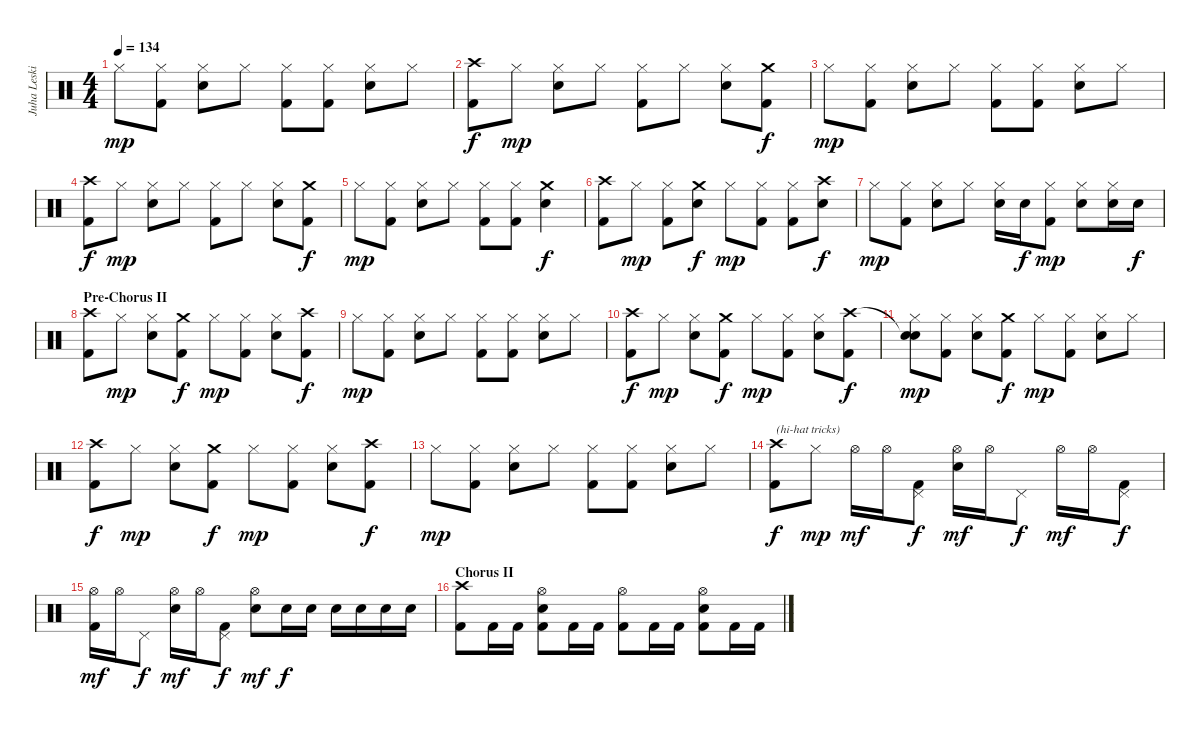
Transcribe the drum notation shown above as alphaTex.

\track ("Juha Leskinen - Drums" "Juha Leski") {instrument percussion}
\staff {score}
\articulation defaults
\ts (4 4)
\tempo 134
\clef neutral
\ks c "Hi-Hat (closed)".8{dy mp}
("Hi-Hat (closed)" "Kick (hit) 2").8 ("Hi-Hat (closed)" "Electric Snare (hit)").8 "Hi-Hat (closed)".8 ("Hi-Hat (closed)" "Kick (hit) 2").8 ("Hi-Hat (closed)" "Kick (hit) 2").8 ("Hi-Hat (closed)" "Electric Snare (hit)").8 "Hi-Hat (closed)".8 |
("Crash high (hit)" "Kick (hit) 2").8{dy f} "Hi-Hat (closed)".8{dy mp} ("Hi-Hat (closed)" "Electric Snare (hit)").8 "Hi-Hat (closed)".8 ("Hi-Hat (closed)" "Kick (hit) 2").8 "Hi-Hat (closed)".8 ("Hi-Hat (closed)" "Electric Snare (hit)").8 ("Crash medium (hit)" "Kick (hit) 2").8{dy f} |
"Hi-Hat (closed)".8{dy mp} ("Hi-Hat (closed)" "Kick (hit) 2").8 ("Hi-Hat (closed)" "Electric Snare (hit)").8 "Hi-Hat (closed)".8 ("Hi-Hat (closed)" "Kick (hit) 2").8 ("Hi-Hat (closed)" "Kick (hit) 2").8 ("Hi-Hat (closed)" "Electric Snare (hit)").8 "Hi-Hat (closed)".8 |
("Crash high (hit)" "Kick (hit) 2").8{dy f} "Hi-Hat (closed)".8{dy mp} ("Hi-Hat (closed)" "Electric Snare (hit)").8 "Hi-Hat (closed)".8 ("Hi-Hat (closed)" "Kick (hit) 2").8 "Hi-Hat (closed)".8 ("Hi-Hat (closed)" "Electric Snare (hit)").8 ("Crash medium (hit)" "Kick (hit) 2").8{dy f} |
"Hi-Hat (closed)".8{dy mp} ("Hi-Hat (closed)" "Kick (hit) 2").8 ("Hi-Hat (closed)" "Electric Snare (hit)").8 "Hi-Hat (closed)".8 ("Hi-Hat (closed)" "Kick (hit) 2").8 ("Hi-Hat (closed)" "Kick (hit) 2").8 ("Crash medium (hit)" "Electric Snare (hit)").4{dy f} |
("Crash high (hit)" "Kick (hit) 2").8 "Hi-Hat (closed)".8{dy mp} ("Hi-Hat (closed)" "Kick (hit) 2").8 ("Crash medium (hit)" "Electric Snare (hit)").8{dy f} "Hi-Hat (closed)".8{dy mp} ("Hi-Hat (closed)" "Kick (hit) 2").8 ("Hi-Hat (closed)" "Kick (hit) 2").8 ("Crash high (hit)" "Electric Snare (hit)").8{dy f} |
"Hi-Hat (closed)".8{dy mp} ("Hi-Hat (closed)" "Kick (hit) 2").8 ("Hi-Hat (closed)" "Electric Snare (hit)").8 "Hi-Hat (closed)".8 ("Hi-Hat (closed)" "Electric Snare (hit)").16 "Electric Snare (hit)".16{dy f} ("Hi-Hat (closed)" "Kick (hit) 2").8{dy mp} ("Hi-Hat (closed)" "Electric Snare (hit)").8 ("Hi-Hat (closed)" "Electric Snare (hit)").16 "Electric Snare (hit)".16{dy f} |
\section ("" "Pre-Chorus II")
("Crash high (hit)" "Kick (hit) 2").8 "Hi-Hat (closed)".8{dy mp} ("Hi-Hat (closed)" "Electric Snare (hit)").8 ("Crash medium (hit)" "Kick (hit) 2").8{dy f} "Hi-Hat (closed)".8{dy mp} ("Hi-Hat (closed)" "Kick (hit) 2").8 ("Hi-Hat (closed)" "Electric Snare (hit)").8 ("Crash high (hit)" "Kick (hit) 2").8{dy f} |
"Hi-Hat (closed)".8{dy mp} ("Hi-Hat (closed)" "Kick (hit) 2").8 ("Hi-Hat (closed)" "Electric Snare (hit)").8 "Hi-Hat (closed)".8 ("Hi-Hat (closed)" "Kick (hit) 2").8 ("Hi-Hat (closed)" "Kick (hit) 2").8 ("Hi-Hat (closed)" "Electric Snare (hit)").8 "Hi-Hat (closed)".8 |
("Crash high (hit)" "Kick (hit) 2").8{dy f} "Hi-Hat (closed)".8{dy mp} ("Hi-Hat (closed)" "Electric Snare (hit)").8 ("Crash medium (hit)" "Kick (hit) 2").8{dy f} "Hi-Hat (closed)".8{dy mp} ("Hi-Hat (closed)" "Kick (hit) 2").8 ("Hi-Hat (closed)" "Electric Snare (hit)").8 ("Crash high (hit)" "Kick (hit) 2").8{dy f} |
("Snare (hit)"{t} "Hi-Hat (closed)" "Snare (hit)").8{dy mp} ("Hi-Hat (closed)" "Kick (hit) 2").8 ("Hi-Hat (closed)" "Electric Snare (hit)").8 ("Crash medium (hit)" "Kick (hit) 2").8{dy f} "Hi-Hat (closed)".8{dy mp} ("Hi-Hat (closed)" "Kick (hit) 2").8 ("Hi-Hat (closed)" "Electric Snare (hit)").8 "Hi-Hat (closed)".8 |
("Crash high (hit)" "Kick (hit) 2").8{dy f} "Hi-Hat (closed)".8{dy mp} ("Hi-Hat (closed)" "Electric Snare (hit)").8 ("Crash medium (hit)" "Kick (hit) 2").8{dy f} "Hi-Hat (closed)".8{dy mp} ("Hi-Hat (closed)" "Kick (hit) 2").8 ("Hi-Hat (closed)" "Electric Snare (hit)").8 ("Crash high (hit)" "Kick (hit) 2").8{dy f} |
"Hi-Hat (closed)".8{dy mp} ("Hi-Hat (closed)" "Kick (hit) 2").8 ("Hi-Hat (closed)" "Electric Snare (hit)").8 "Hi-Hat (closed)".8 ("Hi-Hat (closed)" "Kick (hit) 2").8 ("Hi-Hat (closed)" "Kick (hit) 2").8 ("Hi-Hat (closed)" "Electric Snare (hit)").8 "Hi-Hat (closed)".8 |
("Crash high (hit)" "Kick (hit) 2").8{txt "(hi-hat tricks)" dy f} "Hi-Hat (closed)".8{dy mp} "Hi-Hat (open)".16{dy mf} "Hi-Hat (open)".16 ("Pedal Hi-Hat (hit)" "Kick (hit) 2").8{dy f} ("Hi-Hat (open)" "Electric Snare (hit)").16{dy mf} "Hi-Hat (open)".16 "Pedal Hi-Hat (hit)".8{dy f} "Hi-Hat (open)".16{dy mf} "Hi-Hat (open)".16 ("Pedal Hi-Hat (hit)" "Kick (hit) 2").8{dy f} |
("Hi-Hat (open)" "Kick (hit) 2").16{dy mf} "Hi-Hat (open)".16 "Pedal Hi-Hat (hit)".8{dy f} ("Hi-Hat (open)" "Electric Snare (hit)").16{dy mf} "Hi-Hat (open)".16 ("Pedal Hi-Hat (hit)" "Kick (hit) 2").8{dy f} ("Hi-Hat (open)" "Electric Snare (hit)").8{dy mf} "Electric Snare (hit)".16{dy f} "Electric Snare (hit)".16 "Electric Snare (hit)".16 "Electric Snare (hit)".16 "Electric Snare (hit)".16 "Electric Snare (hit)".16 |
\section ("" "Chorus II")
("Crash high (hit)" "Kick (hit) 2").8 "Kick (hit) 2".16 "Kick (hit) 2".16 ("Hi-Hat (open)" "Electric Snare (hit)" "Kick (hit) 2").8 "Kick (hit) 2".16 "Kick (hit) 2".16 ("Hi-Hat (open)" "Kick (hit) 2").8 "Kick (hit) 2".16 "Kick (hit) 2".16 ("Hi-Hat (open)" "Electric Snare (hit)" "Kick (hit) 2").8 "Kick (hit) 2".16 "Kick (hit) 2".16
